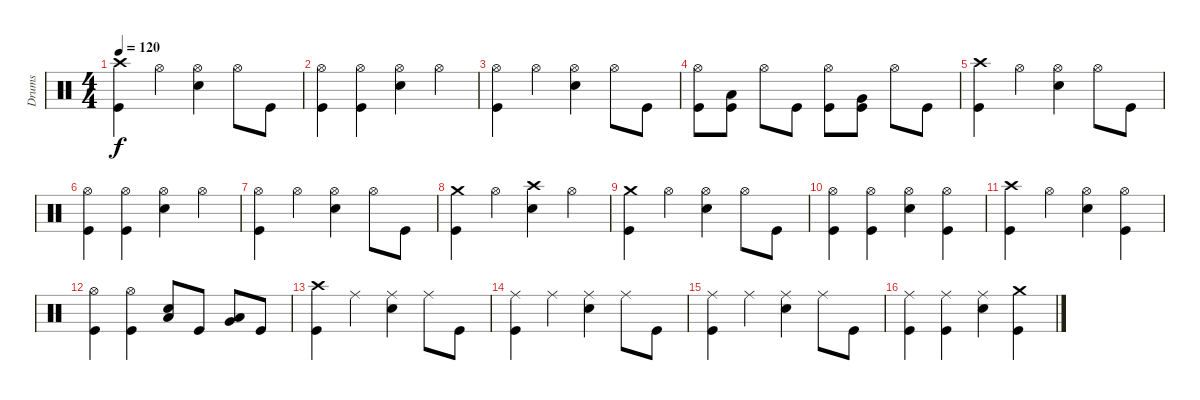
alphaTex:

\track ("Drums" "Drums") {instrument percussion}
\staff {score}
\articulation defaults
\ts (4 4)
\tempo 120
\clef neutral
\ks c
("Crash high (hit)" "Kick (hit)").4{dy f} "Hi-Hat (open)".4 ("Hi-Hat (open)" "Snare (hit) 2").4 "Hi-Hat (open)".8 "Kick (hit)".8 |
("Hi-Hat (open)" "Kick (hit)").4 ("Hi-Hat (open)" "Kick (hit)").4 ("Hi-Hat (open)" "Snare (hit) 2").4 "Hi-Hat (open)".4 |
("Hi-Hat (open)" "Kick (hit)").4 "Hi-Hat (open)".4 ("Hi-Hat (open)" "Snare (hit) 2").4 "Hi-Hat (open)".8 "Kick (hit)".8 |
("Hi-Hat (open)" "Kick (hit)").8 ("Kick (hit)" "Low Tom (hit)").8 "Hi-Hat (open)".8 "Kick (hit)".8 ("Hi-Hat (open)" "Kick (hit)").8 ("Kick (hit)" "Very Low Tom (hit)").8 "Hi-Hat (open)".8 "Kick (hit)".8 |
("Crash high (hit)" "Kick (hit)").4 "Hi-Hat (open)".4 ("Hi-Hat (open)" "Snare (hit) 2").4 "Hi-Hat (open)".8 "Kick (hit)".8 |
("Hi-Hat (open)" "Kick (hit)").4 ("Hi-Hat (open)" "Kick (hit)").4 ("Hi-Hat (open)" "Snare (hit) 2").4 "Hi-Hat (open)".4 |
("Hi-Hat (open)" "Kick (hit)").4 "Hi-Hat (open)".4 ("Hi-Hat (open)" "Snare (hit) 2").4 "Hi-Hat (open)".8 "Kick (hit)".8 |
("Crash medium (hit)" "Kick (hit)").4 "Hi-Hat (open)".4 ("Crash high (hit)" "Snare (hit) 2").4 "Hi-Hat (open)".4 |
("Crash medium (hit)" "Kick (hit)").4 "Hi-Hat (open)".4 ("Hi-Hat (open)" "Snare (hit) 2").4 "Hi-Hat (open)".8 "Kick (hit)".8 |
("Hi-Hat (open)" "Kick (hit)").4 ("Hi-Hat (open)" "Kick (hit)").4 ("Hi-Hat (open)" "Snare (hit) 2").4 ("Hi-Hat (open)" "Kick (hit)").4 |
("Crash high (hit)" "Kick (hit)").4 "Hi-Hat (open)".4 ("Hi-Hat (open)" "Snare (hit) 2").4 ("Hi-Hat (open)" "Kick (hit)").4 |
("Hi-Hat (open)" "Kick (hit)").4 ("Hi-Hat (open)" "Kick (hit)").4 ("Low Tom (hit)" "Snare (hit) 2").8 "Kick (hit)".8 ("Very Low Tom (hit)" "Low Tom (hit)").8 "Kick (hit)".8 |
("Crash high (hit)" "Kick (hit)").4 "Ride (middle)".4 ("Ride (middle)" "Snare (hit) 2").4 "Ride (middle)".8 "Kick (hit)".8 |
("Ride (middle)" "Kick (hit)").4 "Ride (middle)".4 ("Ride (middle)" "Snare (hit) 2").4 "Ride (middle)".8 "Kick (hit)".8 |
("Ride (middle)" "Kick (hit)").4 "Ride (middle)".4 ("Ride (middle)" "Snare (hit) 2").4 "Ride (middle)".8 "Kick (hit)".8 |
("Ride (middle)" "Kick (hit)").4 ("Ride (middle)" "Kick (hit)").4 ("Ride (middle)" "Snare (hit) 2").4 ("Crash medium (hit)" "Kick (hit)").4
